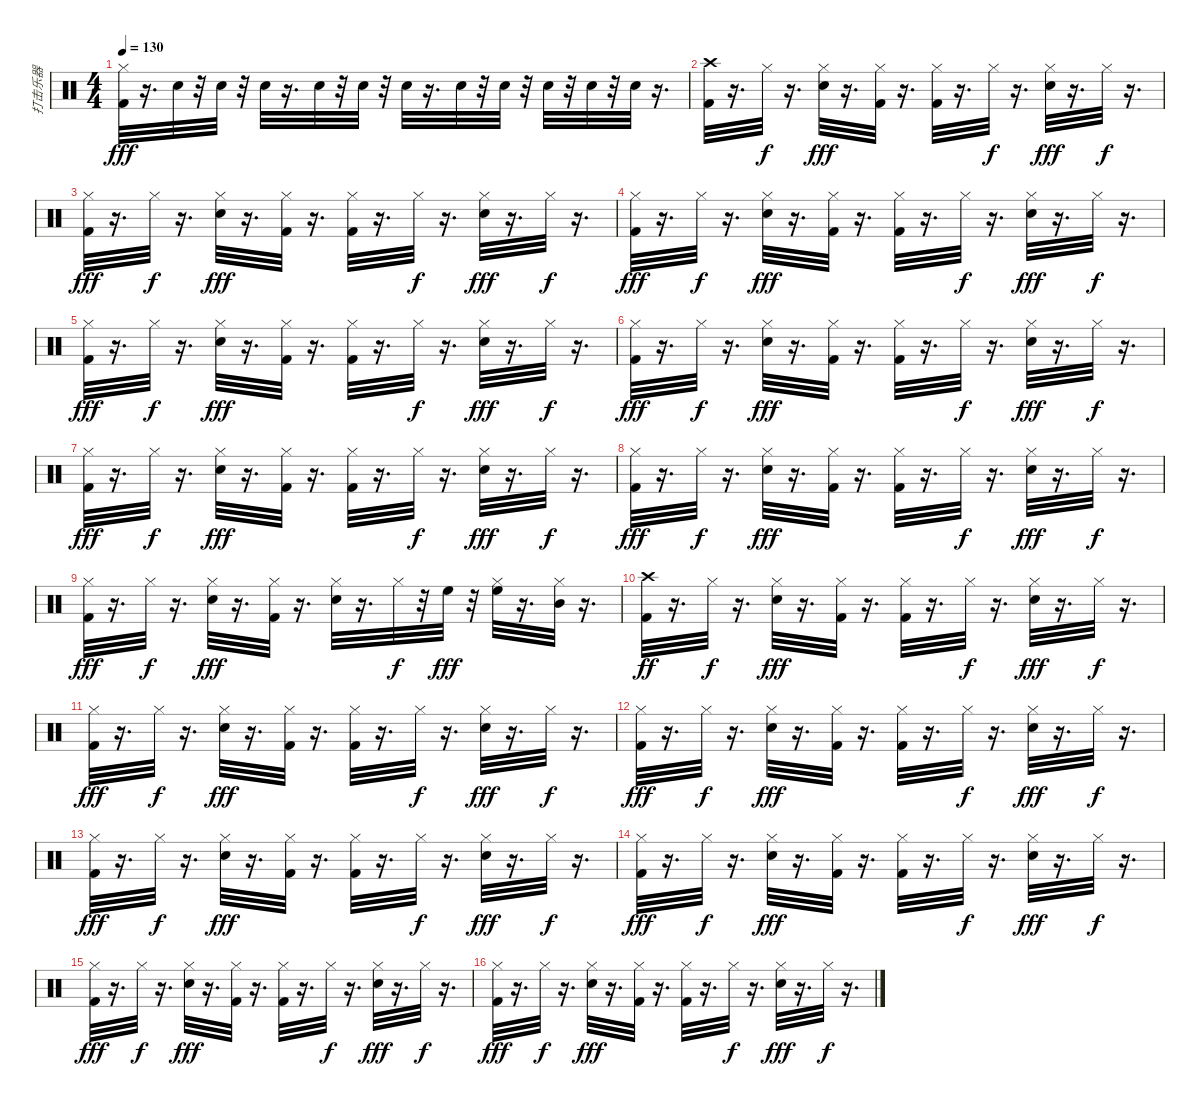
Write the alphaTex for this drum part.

\track ("打击乐器" "打击乐器") {instrument percussion}
\staff {score}
\articulation defaults
\ts (4 4)
\tempo 130
\clef neutral
\ks c
("Kick (hit) 2" "Hi-Hat (closed)").32{dy fff} r.16{d} "Snare (hit) 2".32 r.32 "Electric Snare (hit)".32 r.32 "Snare (hit) 2".32 r.16{d} "Snare (hit) 2".32 r.32 "Electric Snare (hit)".32 r.32 "Snare (hit) 2".32 r.16{d} "Snare (hit) 2".32 r.32 "Electric Snare (hit)".32 r.32 "Snare (hit) 2".32 r.32 "Electric Snare (hit)".32 r.32 "Snare (hit) 2".32 r.16{d} |
("Crash high (hit)" "Kick (hit) 2").32 r.16{d} "Hi-Hat (closed)".32{dy f} r.16{d} ("Hi-Hat (closed)" "Electric Snare (hit)").32{dy fff} r.16{d} ("Kick (hit) 2" "Hi-Hat (closed)").32 r.16{d} ("Kick (hit) 2" "Hi-Hat (closed)").32 r.16{d} "Hi-Hat (closed)".32{dy f} r.16{d} ("Hi-Hat (closed)" "Electric Snare (hit)").32{dy fff} r.16{d} "Hi-Hat (closed)".32{dy f} r.16{d} |
("Kick (hit) 2" "Hi-Hat (closed)").32{dy fff} r.16{d} "Hi-Hat (closed)".32{dy f} r.16{d} ("Hi-Hat (closed)" "Electric Snare (hit)").32{dy fff} r.16{d} ("Kick (hit) 2" "Hi-Hat (closed)").32 r.16{d} ("Kick (hit) 2" "Hi-Hat (closed)").32 r.16{d} "Hi-Hat (closed)".32{dy f} r.16{d} ("Hi-Hat (closed)" "Electric Snare (hit)").32{dy fff} r.16{d} "Hi-Hat (closed)".32{dy f} r.16{d} |
("Kick (hit) 2" "Hi-Hat (closed)").32{dy fff} r.16{d} "Hi-Hat (closed)".32{dy f} r.16{d} ("Hi-Hat (closed)" "Electric Snare (hit)").32{dy fff} r.16{d} ("Kick (hit) 2" "Hi-Hat (closed)").32 r.16{d} ("Kick (hit) 2" "Hi-Hat (closed)").32 r.16{d} "Hi-Hat (closed)".32{dy f} r.16{d} ("Hi-Hat (closed)" "Electric Snare (hit)").32{dy fff} r.16{d} "Hi-Hat (closed)".32{dy f} r.16{d} |
("Kick (hit) 2" "Hi-Hat (closed)").32{dy fff} r.16{d} "Hi-Hat (closed)".32{dy f} r.16{d} ("Hi-Hat (closed)" "Electric Snare (hit)").32{dy fff} r.16{d} ("Kick (hit) 2" "Hi-Hat (closed)").32 r.16{d} ("Kick (hit) 2" "Hi-Hat (closed)").32 r.16{d} "Hi-Hat (closed)".32{dy f} r.16{d} ("Hi-Hat (closed)" "Electric Snare (hit)").32{dy fff} r.16{d} "Hi-Hat (closed)".32{dy f} r.16{d} |
("Kick (hit) 2" "Hi-Hat (closed)").32{dy fff} r.16{d} "Hi-Hat (closed)".32{dy f} r.16{d} ("Hi-Hat (closed)" "Electric Snare (hit)").32{dy fff} r.16{d} ("Kick (hit) 2" "Hi-Hat (closed)").32 r.16{d} ("Kick (hit) 2" "Hi-Hat (closed)").32 r.16{d} "Hi-Hat (closed)".32{dy f} r.16{d} ("Hi-Hat (closed)" "Electric Snare (hit)").32{dy fff} r.16{d} "Hi-Hat (closed)".32{dy f} r.16{d} |
("Kick (hit) 2" "Hi-Hat (closed)").32{dy fff} r.16{d} "Hi-Hat (closed)".32{dy f} r.16{d} ("Hi-Hat (closed)" "Electric Snare (hit)").32{dy fff} r.16{d} ("Kick (hit) 2" "Hi-Hat (closed)").32 r.16{d} ("Kick (hit) 2" "Hi-Hat (closed)").32 r.16{d} "Hi-Hat (closed)".32{dy f} r.16{d} ("Hi-Hat (closed)" "Electric Snare (hit)").32{dy fff} r.16{d} "Hi-Hat (closed)".32{dy f} r.16{d} |
("Kick (hit) 2" "Hi-Hat (closed)").32{dy fff} r.16{d} "Hi-Hat (closed)".32{dy f} r.16{d} ("Hi-Hat (closed)" "Electric Snare (hit)").32{dy fff} r.16{d} ("Kick (hit) 2" "Hi-Hat (closed)").32 r.16{d} ("Kick (hit) 2" "Hi-Hat (closed)").32 r.16{d} "Hi-Hat (closed)".32{dy f} r.16{d} ("Hi-Hat (closed)" "Electric Snare (hit)").32{dy fff} r.16{d} "Hi-Hat (closed)".32{dy f} r.16{d} |
("Kick (hit) 2" "Hi-Hat (closed)").32{dy fff} r.16{d} "Hi-Hat (closed)".32{dy f} r.16{d} ("Electric Snare (hit)" "Hi-Hat (closed)").32{dy fff} r.16{d} ("Kick (hit) 2" "Hi-Hat (closed)").32 r.16{d} ("Electric Snare (hit)" "Hi-Hat (closed)").32 r.16{d} "Hi-Hat (closed)".32{dy f} r.32 "High Floor Tom (hit)".32{dy fff} r.32 ("High Floor Tom (hit)" "Hi-Hat (closed)").32 r.16{d} ("Mid Tom (hit)" "Hi-Hat (closed)").32 r.16{d} |
("Kick (hit) 2" "Crash high (hit)").32{dy ff} r.16{d} "Hi-Hat (closed)".32{dy f} r.16{d} ("Hi-Hat (closed)" "Electric Snare (hit)").32{dy fff} r.16{d} ("Kick (hit) 2" "Hi-Hat (closed)").32 r.16{d} ("Kick (hit) 2" "Hi-Hat (closed)").32 r.16{d} "Hi-Hat (closed)".32{dy f} r.16{d} ("Hi-Hat (closed)" "Electric Snare (hit)").32{dy fff} r.16{d} "Hi-Hat (closed)".32{dy f} r.16{d} |
("Hi-Hat (closed)" "Kick (hit) 2").32{dy fff} r.16{d} "Hi-Hat (closed)".32{dy f} r.16{d} ("Hi-Hat (closed)" "Electric Snare (hit)").32{dy fff} r.16{d} ("Kick (hit) 2" "Hi-Hat (closed)").32 r.16{d} ("Kick (hit) 2" "Hi-Hat (closed)").32 r.16{d} "Hi-Hat (closed)".32{dy f} r.16{d} ("Hi-Hat (closed)" "Electric Snare (hit)").32{dy fff} r.16{d} "Hi-Hat (closed)".32{dy f} r.16{d} |
("Kick (hit) 2" "Hi-Hat (closed)").32{dy fff} r.16{d} "Hi-Hat (closed)".32{dy f} r.16{d} ("Hi-Hat (closed)" "Electric Snare (hit)").32{dy fff} r.16{d} ("Kick (hit) 2" "Hi-Hat (closed)").32 r.16{d} ("Kick (hit) 2" "Hi-Hat (closed)").32 r.16{d} "Hi-Hat (closed)".32{dy f} r.16{d} ("Hi-Hat (closed)" "Electric Snare (hit)").32{dy fff} r.16{d} "Hi-Hat (closed)".32{dy f} r.16{d} |
("Kick (hit) 2" "Hi-Hat (closed)").32{dy fff} r.16{d} "Hi-Hat (closed)".32{dy f} r.16{d} ("Hi-Hat (closed)" "Electric Snare (hit)").32{dy fff} r.16{d} ("Kick (hit) 2" "Hi-Hat (closed)").32 r.16{d} ("Kick (hit) 2" "Hi-Hat (closed)").32 r.16{d} "Hi-Hat (closed)".32{dy f} r.16{d} ("Hi-Hat (closed)" "Electric Snare (hit)").32{dy fff} r.16{d} "Hi-Hat (closed)".32{dy f} r.16{d} |
("Kick (hit) 2" "Hi-Hat (closed)").32{dy fff} r.16{d} "Hi-Hat (closed)".32{dy f} r.16{d} ("Hi-Hat (closed)" "Electric Snare (hit)").32{dy fff} r.16{d} ("Kick (hit) 2" "Hi-Hat (closed)").32 r.16{d} ("Kick (hit) 2" "Hi-Hat (closed)").32 r.16{d} "Hi-Hat (closed)".32{dy f} r.16{d} ("Hi-Hat (closed)" "Electric Snare (hit)").32{dy fff} r.16{d} "Hi-Hat (closed)".32{dy f} r.16{d} |
("Kick (hit) 2" "Hi-Hat (closed)").32{dy fff} r.16{d} "Hi-Hat (closed)".32{dy f} r.16{d} ("Hi-Hat (closed)" "Electric Snare (hit)").32{dy fff} r.16{d} ("Kick (hit) 2" "Hi-Hat (closed)").32 r.16{d} ("Kick (hit) 2" "Hi-Hat (closed)").32 r.16{d} "Hi-Hat (closed)".32{dy f} r.16{d} ("Hi-Hat (closed)" "Electric Snare (hit)").32{dy fff} r.16{d} "Hi-Hat (closed)".32{dy f} r.16{d} |
("Kick (hit) 2" "Hi-Hat (closed)").32{dy fff} r.16{d} "Hi-Hat (closed)".32{dy f} r.16{d} ("Hi-Hat (closed)" "Electric Snare (hit)").32{dy fff} r.16{d} ("Kick (hit) 2" "Hi-Hat (closed)").32 r.16{d} ("Kick (hit) 2" "Hi-Hat (closed)").32 r.16{d} "Hi-Hat (closed)".32{dy f} r.16{d} ("Hi-Hat (closed)" "Electric Snare (hit)").32{dy fff} r.16{d} "Hi-Hat (closed)".32{dy f} r.16{d}
